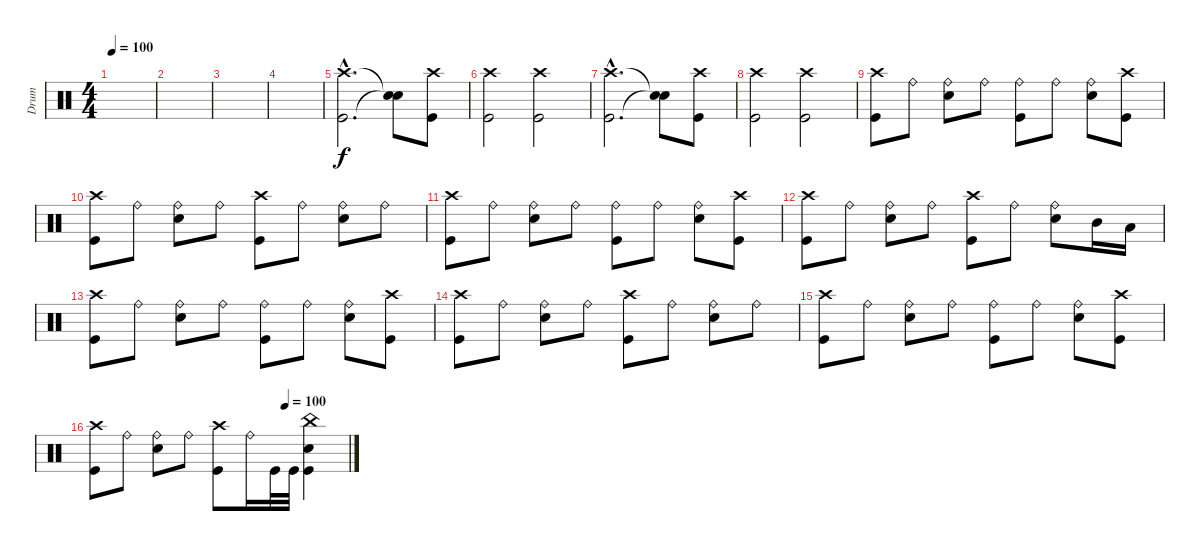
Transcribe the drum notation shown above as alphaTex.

\track ("Drum" "Drum") {instrument percussion}
\staff {score}
\articulation defaults
\ts (4 4)
\tempo 100
\tempo 120
\tempo 100
\clef neutral
\ks c
|
|
|
|
("Crash high (hit)"{hac} "Kick (hit)"{hac}).2{d} ("Snare (hit)"{t} "Snare (hit)"{t}).8 ("Crash high (hit)" "Kick (hit)").8 |
("Crash high (hit)" "Kick (hit)").2 ("Crash high (hit)" "Kick (hit)").2 |
("Crash high (hit)"{hac} "Kick (hit)"{hac}).2{d} ("Snare (hit)"{t} "Snare (hit)"{t}).8 ("Crash high (hit)" "Kick (hit)").8 |
("Crash high (hit)" "Kick (hit)").2 ("Crash high (hit)" "Kick (hit)").2 |
("Crash high (hit)" "Kick (hit)").8 "Ride (bell)".8 ("Ride (bell)" "Electric Snare (hit)").8 "Ride (bell)".8 ("Ride (bell)" "Kick (hit)").8 "Ride (bell)".8 ("Ride (bell)" "Electric Snare (hit)").8 ("Crash high (hit)" "Kick (hit)").8 |
("Crash high (hit)" "Kick (hit)").8 "Ride (bell)".8 ("Ride (bell)" "Electric Snare (hit)").8 "Ride (bell)".8 ("Crash high (hit)" "Kick (hit)").8 "Ride (bell)".8 ("Ride (bell)" "Electric Snare (hit)").8 "Ride (bell)".8 |
("Crash high (hit)" "Kick (hit)").8 "Ride (bell)".8 ("Ride (bell)" "Electric Snare (hit)").8 "Ride (bell)".8 ("Ride (bell)" "Kick (hit)").8 "Ride (bell)".8 ("Ride (bell)" "Electric Snare (hit)").8 ("Crash high (hit)" "Kick (hit)").8 |
("Crash high (hit)" "Kick (hit)").8 "Ride (bell)".8 ("Ride (bell)" "Electric Snare (hit)").8 "Ride (bell)".8 ("Crash high (hit)" "Kick (hit)").8 "Ride (bell)".8 ("Ride (bell)" "Electric Snare (hit)").8 "Mid Tom (hit)".16 "Low Tom (hit)".16 |
("Crash high (hit)" "Kick (hit)").8 "Ride (bell)".8 ("Ride (bell)" "Electric Snare (hit)").8 "Ride (bell)".8 ("Ride (bell)" "Kick (hit)").8 "Ride (bell)".8 ("Ride (bell)" "Electric Snare (hit)").8 ("Crash high (hit)" "Kick (hit)").8 |
("Crash high (hit)" "Kick (hit)").8 "Ride (bell)".8 ("Ride (bell)" "Electric Snare (hit)").8 "Ride (bell)".8 ("Crash high (hit)" "Kick (hit)").8 "Ride (bell)".8 ("Ride (bell)" "Electric Snare (hit)").8 "Ride (bell)".8 |
("Crash high (hit)" "Kick (hit)").8 "Ride (bell)".8 ("Ride (bell)" "Electric Snare (hit)").8 "Ride (bell)".8 ("Ride (bell)" "Kick (hit)").8 "Ride (bell)".8 ("Ride (bell)" "Electric Snare (hit)").8 ("Crash high (hit)" "Kick (hit)").8 |
\tempo (100 0.75)
("Crash high (hit)" "Kick (hit)").8 "Ride (bell)".8 ("Ride (bell)" "Electric Snare (hit)").8 "Ride (bell)".8 ("Crash high (hit)" "Kick (hit)").8 "Ride (bell)".16 "Kick (hit)".32 "Kick (hit)".32 ("China (hit)" "Electric Snare (hit)" "Kick (hit)").4
